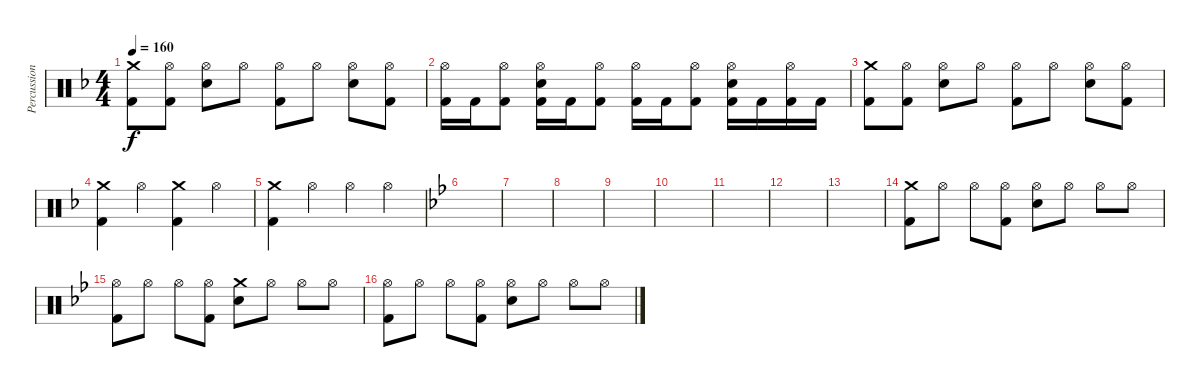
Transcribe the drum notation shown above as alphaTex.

\track ("Percussions" "Percussion") {instrument percussion}
\staff {score}
\articulation defaults
\ts (4 4)
\tempo 160
\clef neutral
\ks f
("Crash medium (hit)" "Kick (hit) 2").8{dy f} ("Hi-Hat (open)" "Kick (hit) 2").8 ("Hi-Hat (open)" "Snare (hit) 2").8 "Hi-Hat (open)".8 ("Hi-Hat (open)" "Kick (hit) 2").8 "Hi-Hat (open)".8 ("Hi-Hat (open)" "Snare (hit) 2").8 ("Hi-Hat (open)" "Kick (hit) 2").8 |
("Hi-Hat (open)" "Kick (hit) 2").16 "Kick (hit) 2".16 ("Hi-Hat (open)" "Kick (hit) 2").8 ("Snare (hit) 2" "Hi-Hat (open)" "Kick (hit) 2").16 "Kick (hit) 2".16 ("Hi-Hat (open)" "Kick (hit) 2").8 ("Hi-Hat (open)" "Kick (hit) 2").16 "Kick (hit) 2".16 ("Hi-Hat (open)" "Kick (hit) 2").8 ("Snare (hit) 2" "Hi-Hat (open)" "Kick (hit) 2").16 "Kick (hit) 2".16 ("Hi-Hat (open)" "Kick (hit) 2").16 "Kick (hit) 2".16 |
("Crash medium (hit)" "Kick (hit) 2").8 ("Hi-Hat (open)" "Kick (hit) 2").8 ("Hi-Hat (open)" "Snare (hit) 2").8 "Hi-Hat (open)".8 ("Hi-Hat (open)" "Kick (hit) 2").8 "Hi-Hat (open)".8 ("Hi-Hat (open)" "Snare (hit) 2").8 ("Hi-Hat (open)" "Kick (hit) 2").8 |
("Crash medium (hit)" "Kick (hit) 2").4 "Hi-Hat (open)".4 ("Crash medium (hit)" "Kick (hit) 2").4 "Hi-Hat (open)".4 |
("Crash medium (hit)" "Kick (hit) 2").4 "Hi-Hat (open)".4 "Hi-Hat (open)".4 "Hi-Hat (open)".4 |
\ks bb
|
|
|
|
|
|
|
|
("Crash medium (hit)" "Kick (hit) 2").8 "Hi-Hat (open)".8 "Hi-Hat (open)".8 ("Hi-Hat (open)" "Kick (hit) 2").8 ("Hi-Hat (open)" "Snare (hit) 2").8 "Hi-Hat (open)".8 "Hi-Hat (open)".8 "Hi-Hat (open)".8 |
("Hi-Hat (open)" "Kick (hit) 2").8 "Hi-Hat (open)".8 "Hi-Hat (open)".8 ("Hi-Hat (open)" "Kick (hit) 2").8 ("Crash medium (hit)" "Snare (hit) 2").8 "Hi-Hat (open)".8 "Hi-Hat (open)".8 "Hi-Hat (open)".8 |
("Hi-Hat (open)" "Kick (hit) 2").8 "Hi-Hat (open)".8 "Hi-Hat (open)".8 ("Hi-Hat (open)" "Kick (hit) 2").8 ("Hi-Hat (open)" "Snare (hit) 2").8 "Hi-Hat (open)".8 "Hi-Hat (open)".8 "Hi-Hat (open)".8
